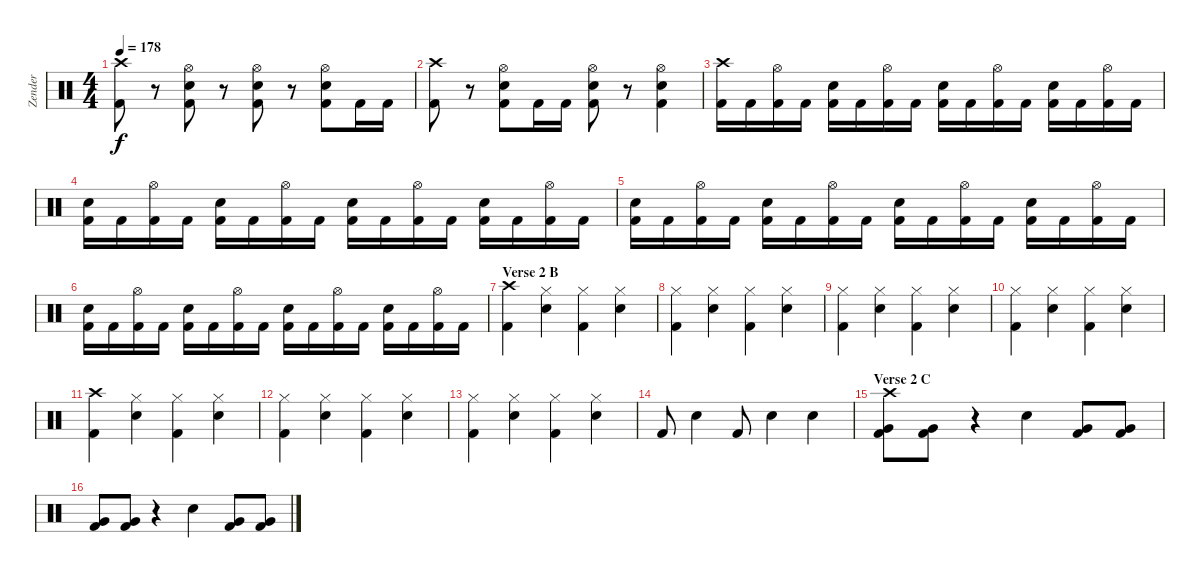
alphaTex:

\track ("Zender" "Zender") {instrument percussion}
\staff {score}
\articulation defaults
\ts (4 4)
\tempo 178
\clef neutral
\ks c
("Crash high (hit)" "Kick (hit) 2").8{dy f} r.8 ("Electric Snare (hit)" "Hi-Hat (open)" "Kick (hit) 2").8 r.8 ("Electric Snare (hit)" "Hi-Hat (open)" "Kick (hit) 2").8 r.8 ("Electric Snare (hit)" "Hi-Hat (open)" "Kick (hit) 2").8 "Kick (hit) 2".16 "Kick (hit) 2".16 |
("Crash high (hit)" "Kick (hit) 2").8 r.8 ("Electric Snare (hit)" "Hi-Hat (open)" "Kick (hit) 2").8 "Kick (hit) 2".16 "Kick (hit) 2".16 ("Electric Snare (hit)" "Hi-Hat (open)" "Kick (hit) 2").8 r.8 ("Electric Snare (hit)" "Hi-Hat (open)" "Kick (hit) 2").4 |
("Crash high (hit)" "Kick (hit) 2").16 "Kick (hit) 2".16 ("Hi-Hat (open)" "Kick (hit) 2").16 "Kick (hit) 2".16 ("Electric Snare (hit)" "Kick (hit) 2").16 "Kick (hit) 2".16 ("Hi-Hat (open)" "Kick (hit) 2").16 "Kick (hit) 2".16 ("Electric Snare (hit)" "Kick (hit) 2").16 "Kick (hit) 2".16 ("Hi-Hat (open)" "Kick (hit) 2").16 "Kick (hit) 2".16 ("Electric Snare (hit)" "Kick (hit) 2").16 "Kick (hit) 2".16 ("Hi-Hat (open)" "Kick (hit) 2").16 "Kick (hit) 2".16 |
("Electric Snare (hit)" "Kick (hit) 2").16 "Kick (hit) 2".16 ("Hi-Hat (open)" "Kick (hit) 2").16 "Kick (hit) 2".16 ("Electric Snare (hit)" "Kick (hit) 2").16 "Kick (hit) 2".16 ("Hi-Hat (open)" "Kick (hit) 2").16 "Kick (hit) 2".16 ("Electric Snare (hit)" "Kick (hit) 2").16 "Kick (hit) 2".16 ("Hi-Hat (open)" "Kick (hit) 2").16 "Kick (hit) 2".16 ("Electric Snare (hit)" "Kick (hit) 2").16 "Kick (hit) 2".16 ("Hi-Hat (open)" "Kick (hit) 2").16 "Kick (hit) 2".16 |
("Electric Snare (hit)" "Kick (hit) 2").16 "Kick (hit) 2".16 ("Hi-Hat (open)" "Kick (hit) 2").16 "Kick (hit) 2".16 ("Electric Snare (hit)" "Kick (hit) 2").16 "Kick (hit) 2".16 ("Hi-Hat (open)" "Kick (hit) 2").16 "Kick (hit) 2".16 ("Electric Snare (hit)" "Kick (hit) 2").16 "Kick (hit) 2".16 ("Hi-Hat (open)" "Kick (hit) 2").16 "Kick (hit) 2".16 ("Electric Snare (hit)" "Kick (hit) 2").16 "Kick (hit) 2".16 ("Hi-Hat (open)" "Kick (hit) 2").16 "Kick (hit) 2".16 |
("Electric Snare (hit)" "Kick (hit) 2").16 "Kick (hit) 2".16 ("Hi-Hat (open)" "Kick (hit) 2").16 "Kick (hit) 2".16 ("Electric Snare (hit)" "Kick (hit) 2").16 "Kick (hit) 2".16 ("Hi-Hat (open)" "Kick (hit) 2").16 "Kick (hit) 2".16 ("Electric Snare (hit)" "Kick (hit) 2").16 "Kick (hit) 2".16 ("Hi-Hat (open)" "Kick (hit) 2").16 "Kick (hit) 2".16 ("Electric Snare (hit)" "Kick (hit) 2").16 "Kick (hit) 2".16 ("Hi-Hat (open)" "Kick (hit) 2").16 "Kick (hit) 2".16 |
\section ("" "Verse 2 B")
("Crash high (hit)" "Kick (hit) 2").4 ("Electric Snare (hit)" "Hi-Hat (closed)").4 ("Hi-Hat (closed)" "Kick (hit) 2").4 ("Electric Snare (hit)" "Hi-Hat (closed)").4 |
("Hi-Hat (closed)" "Kick (hit) 2").4 ("Electric Snare (hit)" "Hi-Hat (closed)").4 ("Hi-Hat (closed)" "Kick (hit) 2").4 ("Electric Snare (hit)" "Hi-Hat (closed)").4 |
("Hi-Hat (closed)" "Kick (hit) 2").4 ("Electric Snare (hit)" "Hi-Hat (closed)").4 ("Hi-Hat (closed)" "Kick (hit) 2").4 ("Electric Snare (hit)" "Hi-Hat (closed)").4 |
("Hi-Hat (closed)" "Kick (hit) 2").4 ("Electric Snare (hit)" "Hi-Hat (closed)").4 ("Hi-Hat (closed)" "Kick (hit) 2").4 ("Electric Snare (hit)" "Hi-Hat (closed)").4 |
("Crash high (hit)" "Kick (hit) 2").4 ("Electric Snare (hit)" "Hi-Hat (closed)").4 ("Hi-Hat (closed)" "Kick (hit) 2").4 ("Electric Snare (hit)" "Hi-Hat (closed)").4 |
("Hi-Hat (closed)" "Kick (hit) 2").4 ("Electric Snare (hit)" "Hi-Hat (closed)").4 ("Hi-Hat (closed)" "Kick (hit) 2").4 ("Electric Snare (hit)" "Hi-Hat (closed)").4 |
("Hi-Hat (closed)" "Kick (hit) 2").4 ("Electric Snare (hit)" "Hi-Hat (closed)").4 ("Hi-Hat (closed)" "Kick (hit) 2").4 ("Electric Snare (hit)" "Hi-Hat (closed)").4 |
"Kick (hit) 2".8 "Electric Snare (hit)".4 "Kick (hit) 2".8 "Electric Snare (hit)".4 "Electric Snare (hit)".4 |
\section ("" "Verse 2 C")
("Crash high (hit)" "Very Low Tom (hit)" "Kick (hit) 2").8 ("Very Low Tom (hit)" "Kick (hit) 2").8 r.4 "Electric Snare (hit)".4 ("Very Low Tom (hit)" "Kick (hit) 2").8 ("Very Low Tom (hit)" "Kick (hit) 2").8 |
("Very Low Tom (hit)" "Kick (hit) 2").8 ("Very Low Tom (hit)" "Kick (hit) 2").8 r.4 "Electric Snare (hit)".4 ("Very Low Tom (hit)" "Kick (hit) 2").8 ("Very Low Tom (hit)" "Kick (hit) 2").8
